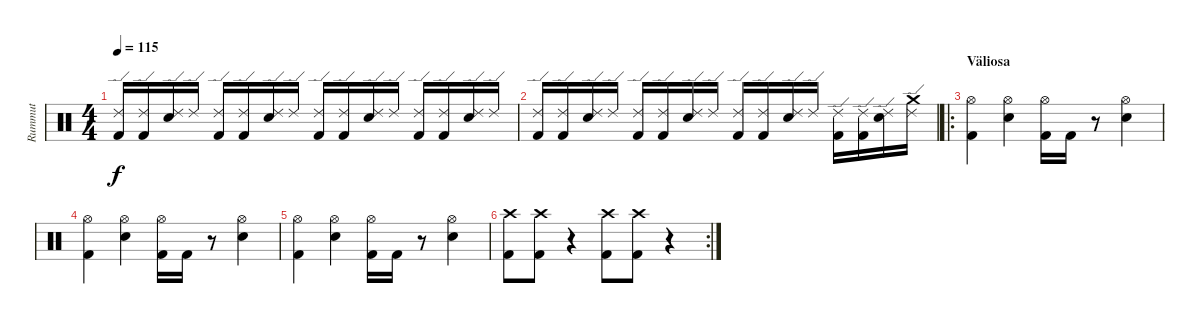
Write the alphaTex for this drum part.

\track ("Rummut" "Rummut") {instrument percussion}
\staff {score}
\articulation defaults
\ts (4 4)
\tempo 115
\clef neutral
\ks c
("Ride (edge) 2" "Kick (hit) 2").16{dy f} ("Ride (edge) 2" "Kick (hit) 2").16 ("Snare (hit) 2" "Ride (edge) 2").16 "Ride (edge) 2".16 ("Ride (edge) 2" "Kick (hit) 2").16 ("Ride (edge) 2" "Kick (hit) 2").16 ("Snare (hit) 2" "Ride (edge) 2").16 "Ride (edge) 2".16 ("Ride (edge) 2" "Kick (hit) 2").16 ("Ride (edge) 2" "Kick (hit) 2").16 ("Snare (hit) 2" "Ride (edge) 2").16 "Ride (edge) 2".16 ("Ride (edge) 2" "Kick (hit) 2").16 ("Ride (edge) 2" "Kick (hit) 2").16 ("Snare (hit) 2" "Ride (edge) 2").16 "Ride (edge) 2".16 |
("Ride (edge) 2" "Kick (hit) 2").16 ("Ride (edge) 2" "Kick (hit) 2").16 ("Snare (hit) 2" "Ride (edge) 2").16 "Ride (edge) 2".16 ("Ride (edge) 2" "Kick (hit) 2").16 ("Ride (edge) 2" "Kick (hit) 2").16 ("Snare (hit) 2" "Ride (edge) 2").16 "Ride (edge) 2".16 ("Ride (edge) 2" "Kick (hit) 2").16 ("Ride (edge) 2" "Kick (hit) 2").16 ("Snare (hit) 2" "Ride (edge) 2").16 "Ride (edge) 2".16 ("Ride (edge) 2" "Kick (hit) 2").16 ("Ride (edge) 2" "Kick (hit) 2").16 ("Snare (hit) 2" "Ride (edge) 2").16 ("Crash medium (hit)" "Ride (edge) 2").16 |
\ro
\section ("" "Väliosa")
("Hi-Hat (open)" "Kick (hit) 2").4 ("Snare (hit) 2" "Hi-Hat (open)").4 ("Hi-Hat (open)" "Kick (hit) 2").16 "Kick (hit) 2".16 r.8 ("Snare (hit) 2" "Hi-Hat (open)").4 |
("Hi-Hat (open)" "Kick (hit) 2").4 ("Snare (hit) 2" "Hi-Hat (open)").4 ("Hi-Hat (open)" "Kick (hit) 2").16 "Kick (hit) 2".16 r.8 ("Snare (hit) 2" "Hi-Hat (open)").4 |
("Hi-Hat (open)" "Kick (hit) 2").4 ("Snare (hit) 2" "Hi-Hat (open)").4 ("Hi-Hat (open)" "Kick (hit) 2").16 "Kick (hit) 2".16 r.8 ("Snare (hit) 2" "Hi-Hat (open)").4 |
\rc 2
("Crash high (hit)" "Kick (hit) 2").8 ("Crash high (hit)" "Kick (hit) 2").8 r.4 ("Crash high (hit)" "Kick (hit) 2").8 ("Crash high (hit)" "Kick (hit) 2").8 r.4
